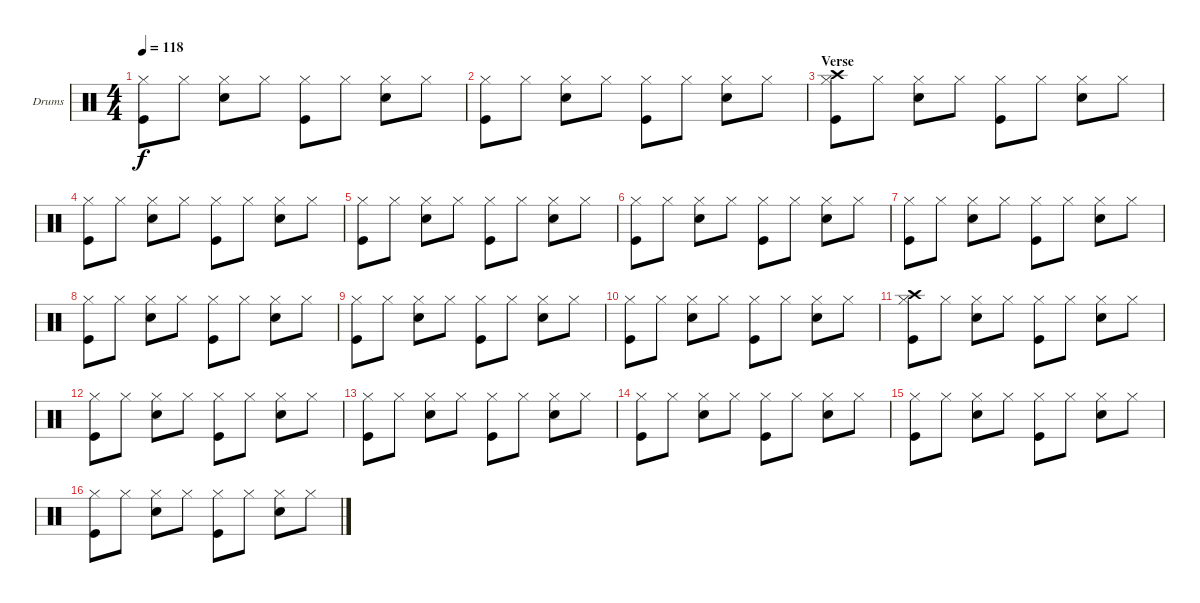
\bracketExtendMode groupsimilarinstruments
\firstSystemTrackNameOrientation horizontal
\otherSystemsTrackNameOrientation horizontal
\track ("Drumkit" "Drums") {instrument percussion}
\staff {score}
\articulation defaults
\ts (4 4)
\tempo 118
\clef neutral
\scale
0.333333
\ks c
("Hi-Hat (closed)" "Kick (hit)").8{dy f} "Hi-Hat (closed)".8 ("Hi-Hat (closed)" "Snare (hit) 2").8 "Hi-Hat (closed)".8 ("Hi-Hat (closed)" "Kick (hit)").8 "Hi-Hat (closed)".8 ("Hi-Hat (closed)" "Snare (hit) 2").8 "Hi-Hat (closed)".8 |
\scale
0.333333 ("Hi-Hat (closed)" "Kick (hit)").8 "Hi-Hat (closed)".8 ("Hi-Hat (closed)" "Snare (hit) 2").8 "Hi-Hat (closed)".8 ("Hi-Hat (closed)" "Kick (hit)").8 "Hi-Hat (closed)".8 ("Hi-Hat (closed)" "Snare (hit) 2").8 "Hi-Hat (closed)".8 |
\section ("" "Verse")
\scale
0.333333 ("Hi-Hat (closed)" "Kick (hit)" "Crash high (hit)").8 "Hi-Hat (closed)".8 ("Hi-Hat (closed)" "Snare (hit) 2").8 "Hi-Hat (closed)".8 ("Hi-Hat (closed)" "Kick (hit)").8 "Hi-Hat (closed)".8 ("Hi-Hat (closed)" "Snare (hit) 2").8 "Hi-Hat (closed)".8 |
\scale
0.333333 ("Hi-Hat (closed)" "Kick (hit)").8 "Hi-Hat (closed)".8 ("Hi-Hat (closed)" "Snare (hit) 2").8 "Hi-Hat (closed)".8 ("Hi-Hat (closed)" "Kick (hit)").8 "Hi-Hat (closed)".8 ("Hi-Hat (closed)" "Snare (hit) 2").8 "Hi-Hat (closed)".8 |
\scale
0.333333 ("Hi-Hat (closed)" "Kick (hit)").8 "Hi-Hat (closed)".8 ("Hi-Hat (closed)" "Snare (hit) 2").8 "Hi-Hat (closed)".8 ("Hi-Hat (closed)" "Kick (hit)").8 "Hi-Hat (closed)".8 ("Hi-Hat (closed)" "Snare (hit) 2").8 "Hi-Hat (closed)".8 |
\scale
0.333333 ("Hi-Hat (closed)" "Kick (hit)").8 "Hi-Hat (closed)".8 ("Hi-Hat (closed)" "Snare (hit) 2").8 "Hi-Hat (closed)".8 ("Hi-Hat (closed)" "Kick (hit)").8 "Hi-Hat (closed)".8 ("Hi-Hat (closed)" "Snare (hit) 2").8 "Hi-Hat (closed)".8 |
\scale
0.333333 ("Hi-Hat (closed)" "Kick (hit)").8 "Hi-Hat (closed)".8 ("Hi-Hat (closed)" "Snare (hit) 2").8 "Hi-Hat (closed)".8 ("Hi-Hat (closed)" "Kick (hit)").8 "Hi-Hat (closed)".8 ("Hi-Hat (closed)" "Snare (hit) 2").8 "Hi-Hat (closed)".8 |
\scale
0.333333 ("Hi-Hat (closed)" "Kick (hit)").8 "Hi-Hat (closed)".8 ("Hi-Hat (closed)" "Snare (hit) 2").8 "Hi-Hat (closed)".8 ("Hi-Hat (closed)" "Kick (hit)").8 "Hi-Hat (closed)".8 ("Hi-Hat (closed)" "Snare (hit) 2").8 "Hi-Hat (closed)".8 |
\scale
0.333333 ("Hi-Hat (closed)" "Kick (hit)").8 "Hi-Hat (closed)".8 ("Hi-Hat (closed)" "Snare (hit) 2").8 "Hi-Hat (closed)".8 ("Hi-Hat (closed)" "Kick (hit)").8 "Hi-Hat (closed)".8 ("Hi-Hat (closed)" "Snare (hit) 2").8 "Hi-Hat (closed)".8 |
\scale
0.333333 ("Hi-Hat (closed)" "Kick (hit)").8 "Hi-Hat (closed)".8 ("Hi-Hat (closed)" "Snare (hit) 2").8 "Hi-Hat (closed)".8 ("Hi-Hat (closed)" "Kick (hit)").8 "Hi-Hat (closed)".8 ("Hi-Hat (closed)" "Snare (hit) 2").8 "Hi-Hat (closed)".8 |
\scale
0.333333 ("Hi-Hat (closed)" "Kick (hit)" "Crash high (hit)").8 "Hi-Hat (closed)".8 ("Hi-Hat (closed)" "Snare (hit) 2").8 "Hi-Hat (closed)".8 ("Hi-Hat (closed)" "Kick (hit)").8 "Hi-Hat (closed)".8 ("Hi-Hat (closed)" "Snare (hit) 2").8 "Hi-Hat (closed)".8 |
\scale
0.333333 ("Hi-Hat (closed)" "Kick (hit)").8 "Hi-Hat (closed)".8 ("Hi-Hat (closed)" "Snare (hit) 2").8 "Hi-Hat (closed)".8 ("Hi-Hat (closed)" "Kick (hit)").8 "Hi-Hat (closed)".8 ("Hi-Hat (closed)" "Snare (hit) 2").8 "Hi-Hat (closed)".8 |
\scale
0.333333 ("Hi-Hat (closed)" "Kick (hit)").8 "Hi-Hat (closed)".8 ("Hi-Hat (closed)" "Snare (hit) 2").8 "Hi-Hat (closed)".8 ("Hi-Hat (closed)" "Kick (hit)").8 "Hi-Hat (closed)".8 ("Hi-Hat (closed)" "Snare (hit) 2").8 "Hi-Hat (closed)".8 |
\scale
0.333333 ("Hi-Hat (closed)" "Kick (hit)").8 "Hi-Hat (closed)".8 ("Hi-Hat (closed)" "Snare (hit) 2").8 "Hi-Hat (closed)".8 ("Hi-Hat (closed)" "Kick (hit)").8 "Hi-Hat (closed)".8 ("Hi-Hat (closed)" "Snare (hit) 2").8 "Hi-Hat (closed)".8 |
\scale
0.333333 ("Hi-Hat (closed)" "Kick (hit)").8 "Hi-Hat (closed)".8 ("Hi-Hat (closed)" "Snare (hit) 2").8 "Hi-Hat (closed)".8 ("Hi-Hat (closed)" "Kick (hit)").8 "Hi-Hat (closed)".8 ("Hi-Hat (closed)" "Snare (hit) 2").8 "Hi-Hat (closed)".8 |
\scale
0.333333 ("Hi-Hat (closed)" "Kick (hit)").8 "Hi-Hat (closed)".8 ("Hi-Hat (closed)" "Snare (hit) 2").8 "Hi-Hat (closed)".8 ("Hi-Hat (closed)" "Kick (hit)").8 "Hi-Hat (closed)".8 ("Hi-Hat (closed)" "Snare (hit) 2").8 "Hi-Hat (closed)".8
